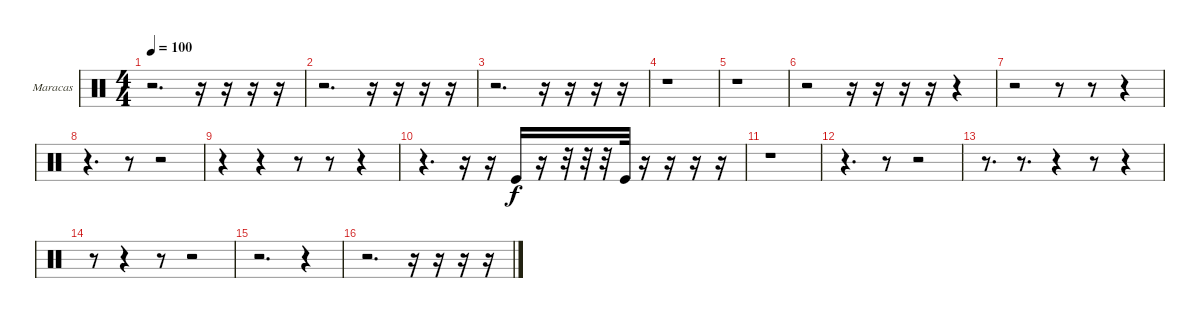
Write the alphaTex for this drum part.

\bracketExtendMode groupsimilarinstruments
\firstSystemTrackNameOrientation horizontal
\otherSystemsTrackNameOrientation horizontal
\track ("Maracas" "Maracas") {instrument percussion}
\staff {score}
\articulation defaults
\ts (4 4)
\tempo 100
\clef neutral
\ks c
r.2{d dy f} r.16 r.16 r.16 r.16 |
r.2{d} r.16 r.16 r.16 r.16 |
r.2{d} r.16 r.16 r.16 r.16 |
r.1 |
r.1 |
r.2 r.16 r.16 r.16 r.16 r.4 |
r.2 r.8 r.8 r.4 |
r.4{d} r.8 r.2 |
r.4 r.4 r.8 r.8 r.4 |
r.4{d} r.16 r.16 "Kick (hit)".16 r.16 r.32 r.32 r.32 "Kick (hit)".32 r.16 r.16 r.16 r.16 |
r.1 |
r.4{d} r.8 r.2 |
r.8{d} r.8{d} r.4 r.8 r.4 |
r.8 r.4 r.8 r.2 |
r.2{d} r.4 |
r.2{d} r.16 r.16 r.16 r.16
